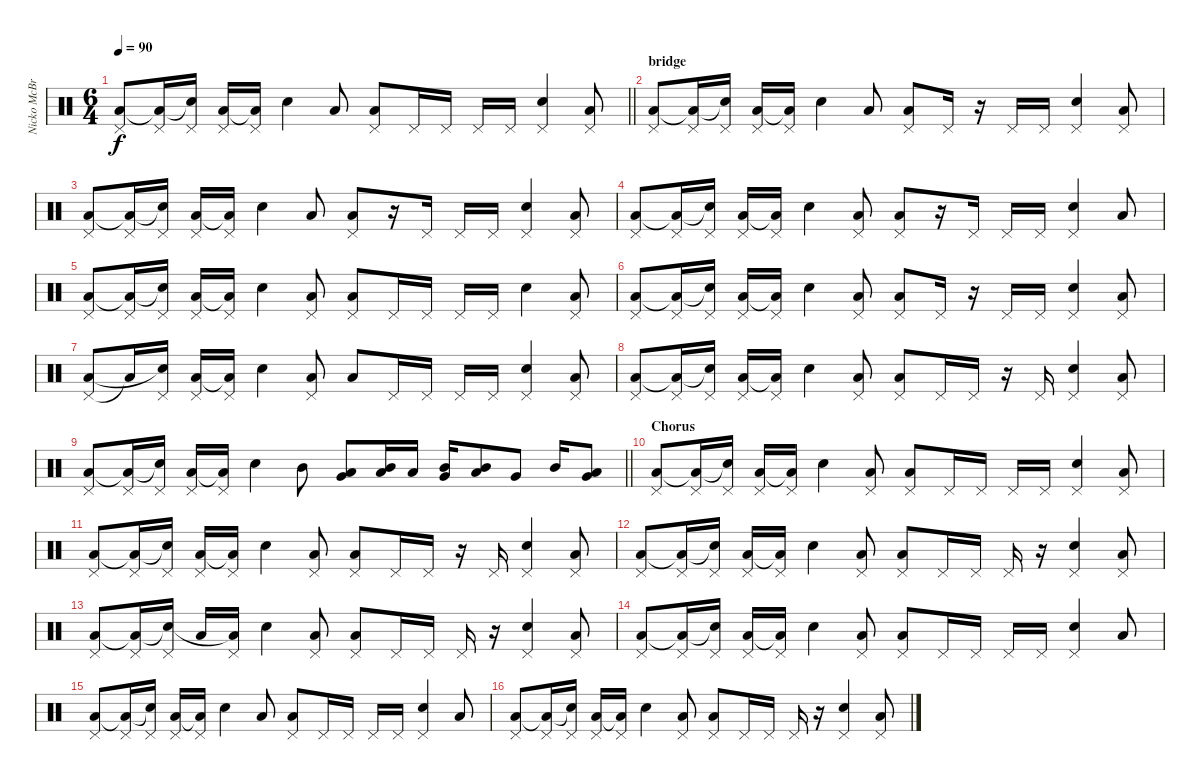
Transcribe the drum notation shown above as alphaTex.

\track ("Nicko McBrain" "Nicko McBr") {instrument percussion}
\staff {score}
\articulation defaults
\ts (6 4)
\tempo 90
\clef neutral
\barLineRight lightlight
\ks c
("Pedal Hi-Hat (hit)" "Low Floor Tom (hit)").8{dy f} ("Pedal Hi-Hat (hit)" "Low Floor Tom (hit)"{t}).16 ("Pedal Hi-Hat (hit)" "Electric Snare (hit)"{t}).16 ("Pedal Hi-Hat (hit)" "Low Floor Tom (hit)").16 ("Pedal Hi-Hat (hit)" "Low Floor Tom (hit)"{t}).16 "Electric Snare (hit)".4 "Low Floor Tom (hit)".8 ("Pedal Hi-Hat (hit)" "Low Floor Tom (hit)").8 "Pedal Hi-Hat (hit)".16 "Pedal Hi-Hat (hit)".16 "Pedal Hi-Hat (hit)".16 "Pedal Hi-Hat (hit)".16 ("Pedal Hi-Hat (hit)" "Electric Snare (hit)").4 ("Pedal Hi-Hat (hit)" "Low Floor Tom (hit)").8 |
\section ("" "bridge")
("Pedal Hi-Hat (hit)" "Low Floor Tom (hit)").8 ("Pedal Hi-Hat (hit)" "Low Floor Tom (hit)"{t}).16 ("Pedal Hi-Hat (hit)" "Electric Snare (hit)"{t}).16 ("Pedal Hi-Hat (hit)" "Low Floor Tom (hit)").16 ("Pedal Hi-Hat (hit)" "Low Floor Tom (hit)"{t}).16 "Electric Snare (hit)".4 "Low Floor Tom (hit)".8 ("Pedal Hi-Hat (hit)" "Low Floor Tom (hit)").8 "Pedal Hi-Hat (hit)".16 r.16 "Pedal Hi-Hat (hit)".16 "Pedal Hi-Hat (hit)".16 ("Pedal Hi-Hat (hit)" "Electric Snare (hit)").4 ("Pedal Hi-Hat (hit)" "Low Floor Tom (hit)").8 |
("Pedal Hi-Hat (hit)" "Low Floor Tom (hit)").8 ("Pedal Hi-Hat (hit)" "Low Floor Tom (hit)"{t}).16 ("Pedal Hi-Hat (hit)" "Electric Snare (hit)"{t}).16 ("Pedal Hi-Hat (hit)" "Low Floor Tom (hit)").16 ("Pedal Hi-Hat (hit)" "Low Floor Tom (hit)"{t}).16 "Electric Snare (hit)".4 "Low Floor Tom (hit)".8 ("Pedal Hi-Hat (hit)" "Low Floor Tom (hit)").8 r.16 "Pedal Hi-Hat (hit)".16 "Pedal Hi-Hat (hit)".16 "Pedal Hi-Hat (hit)".16 ("Pedal Hi-Hat (hit)" "Electric Snare (hit)").4 ("Pedal Hi-Hat (hit)" "Low Floor Tom (hit)").8 |
("Pedal Hi-Hat (hit)" "Low Floor Tom (hit)").8 ("Pedal Hi-Hat (hit)" "Low Floor Tom (hit)"{t}).16 ("Pedal Hi-Hat (hit)" "Electric Snare (hit)"{t}).16 ("Pedal Hi-Hat (hit)" "Low Floor Tom (hit)").16 ("Pedal Hi-Hat (hit)" "Low Floor Tom (hit)"{t}).16 "Electric Snare (hit)".4 ("Pedal Hi-Hat (hit)" "Low Floor Tom (hit)").8 ("Pedal Hi-Hat (hit)" "Low Floor Tom (hit)").8 r.16 "Pedal Hi-Hat (hit)".16 "Pedal Hi-Hat (hit)".16 "Pedal Hi-Hat (hit)".16 ("Pedal Hi-Hat (hit)" "Electric Snare (hit)").4 "Low Floor Tom (hit)".8 |
("Pedal Hi-Hat (hit)" "Low Floor Tom (hit)").8 ("Pedal Hi-Hat (hit)" "Low Floor Tom (hit)"{t}).16 ("Pedal Hi-Hat (hit)" "Electric Snare (hit)"{t}).16 ("Pedal Hi-Hat (hit)" "Low Floor Tom (hit)").16 ("Pedal Hi-Hat (hit)" "Low Floor Tom (hit)"{t}).16 "Electric Snare (hit)".4 ("Pedal Hi-Hat (hit)" "Low Floor Tom (hit)").8 ("Pedal Hi-Hat (hit)" "Low Floor Tom (hit)").8 "Pedal Hi-Hat (hit)".16 "Pedal Hi-Hat (hit)".16 "Pedal Hi-Hat (hit)".16 "Pedal Hi-Hat (hit)".16 "Electric Snare (hit)".4 ("Pedal Hi-Hat (hit)" "Low Floor Tom (hit)").8 |
("Pedal Hi-Hat (hit)" "Low Floor Tom (hit)").8 ("Pedal Hi-Hat (hit)" "Low Floor Tom (hit)"{t}).16 ("Pedal Hi-Hat (hit)" "Electric Snare (hit)"{t}).16 ("Pedal Hi-Hat (hit)" "Low Floor Tom (hit)").16 ("Pedal Hi-Hat (hit)" "Low Floor Tom (hit)"{t}).16 "Electric Snare (hit)".4 ("Pedal Hi-Hat (hit)" "Low Floor Tom (hit)").8 ("Pedal Hi-Hat (hit)" "Low Floor Tom (hit)").8 "Pedal Hi-Hat (hit)".16 r.16 "Pedal Hi-Hat (hit)".16 "Pedal Hi-Hat (hit)".16 ("Pedal Hi-Hat (hit)" "Electric Snare (hit)").4 ("Pedal Hi-Hat (hit)" "Low Floor Tom (hit)").8 |
("Pedal Hi-Hat (hit)" "Low Floor Tom (hit)").8 "Low Floor Tom (hit)"{t}.16 ("Pedal Hi-Hat (hit)" "Electric Snare (hit)"{t}).16 ("Pedal Hi-Hat (hit)" "Low Floor Tom (hit)").16 ("Pedal Hi-Hat (hit)" "Low Floor Tom (hit)"{t}).16 "Electric Snare (hit)".4 ("Pedal Hi-Hat (hit)" "Low Floor Tom (hit)").8 "Low Floor Tom (hit)".8 "Pedal Hi-Hat (hit)".16 "Pedal Hi-Hat (hit)".16 "Pedal Hi-Hat (hit)".16 "Pedal Hi-Hat (hit)".16 ("Pedal Hi-Hat (hit)" "Electric Snare (hit)").4 ("Pedal Hi-Hat (hit)" "Low Floor Tom (hit)").8 |
("Pedal Hi-Hat (hit)" "Low Floor Tom (hit)").8 ("Pedal Hi-Hat (hit)" "Low Floor Tom (hit)"{t}).16 ("Pedal Hi-Hat (hit)" "Electric Snare (hit)"{t}).16 ("Pedal Hi-Hat (hit)" "Low Floor Tom (hit)").16 ("Pedal Hi-Hat (hit)" "Low Floor Tom (hit)"{t}).16 "Electric Snare (hit)".4 ("Pedal Hi-Hat (hit)" "Low Floor Tom (hit)").8 ("Pedal Hi-Hat (hit)" "Low Floor Tom (hit)").8 "Pedal Hi-Hat (hit)".16 "Pedal Hi-Hat (hit)".16 r.16 "Pedal Hi-Hat (hit)".16 ("Pedal Hi-Hat (hit)" "Electric Snare (hit)").4 ("Pedal Hi-Hat (hit)" "Low Floor Tom (hit)").8 |
\barLineRight lightlight
("Pedal Hi-Hat (hit)" "Low Floor Tom (hit)").8 ("Pedal Hi-Hat (hit)" "Low Floor Tom (hit)"{t}).16 ("Pedal Hi-Hat (hit)" "Electric Snare (hit)"{t}).16 ("Pedal Hi-Hat (hit)" "Low Floor Tom (hit)").16 ("Pedal Hi-Hat (hit)" "Low Floor Tom (hit)"{t}).16 "Electric Snare (hit)".4 "Mid Tom (hit)".8 ("Very Low Tom (hit)" "Low Tom (hit)").8 ("Mid Tom (hit)" "Low Tom (hit)").16 "Low Tom (hit)".16 ("Very Low Tom (hit)" "Mid Tom (hit)").16 ("Mid Tom (hit)" "Low Tom (hit)").8 "Very Low Tom (hit)".8 "Mid Tom (hit)".16 ("Very Low Tom (hit)" "Low Tom (hit)").8 |
\section ("" "Chorus")
("Pedal Hi-Hat (hit)" "Low Floor Tom (hit)").8 ("Pedal Hi-Hat (hit)" "Low Floor Tom (hit)"{t}).16 ("Pedal Hi-Hat (hit)" "Electric Snare (hit)"{t}).16 ("Pedal Hi-Hat (hit)" "Low Floor Tom (hit)").16 ("Pedal Hi-Hat (hit)" "Low Floor Tom (hit)"{t}).16 "Electric Snare (hit)".4 ("Pedal Hi-Hat (hit)" "Low Floor Tom (hit)").8 ("Pedal Hi-Hat (hit)" "Low Floor Tom (hit)").8 "Pedal Hi-Hat (hit)".16 "Pedal Hi-Hat (hit)".16 "Pedal Hi-Hat (hit)".16 "Pedal Hi-Hat (hit)".16 ("Pedal Hi-Hat (hit)" "Electric Snare (hit)").4 ("Pedal Hi-Hat (hit)" "Low Floor Tom (hit)").8 |
("Pedal Hi-Hat (hit)" "Low Floor Tom (hit)").8 ("Pedal Hi-Hat (hit)" "Low Floor Tom (hit)"{t}).16 ("Pedal Hi-Hat (hit)" "Electric Snare (hit)"{t}).16 ("Pedal Hi-Hat (hit)" "Low Floor Tom (hit)").16 ("Pedal Hi-Hat (hit)" "Low Floor Tom (hit)"{t}).16 "Electric Snare (hit)".4 ("Pedal Hi-Hat (hit)" "Low Floor Tom (hit)").8 ("Pedal Hi-Hat (hit)" "Low Floor Tom (hit)").8 "Pedal Hi-Hat (hit)".16 "Pedal Hi-Hat (hit)".16 r.16 "Pedal Hi-Hat (hit)".16 ("Pedal Hi-Hat (hit)" "Electric Snare (hit)").4 ("Pedal Hi-Hat (hit)" "Low Floor Tom (hit)").8 |
("Pedal Hi-Hat (hit)" "Low Floor Tom (hit)").8 ("Pedal Hi-Hat (hit)" "Low Floor Tom (hit)"{t}).16 ("Pedal Hi-Hat (hit)" "Electric Snare (hit)"{t}).16 ("Pedal Hi-Hat (hit)" "Low Floor Tom (hit)").16 ("Pedal Hi-Hat (hit)" "Low Floor Tom (hit)"{t}).16 "Electric Snare (hit)".4 ("Pedal Hi-Hat (hit)" "Low Floor Tom (hit)").8 ("Pedal Hi-Hat (hit)" "Low Floor Tom (hit)").8 "Pedal Hi-Hat (hit)".16 "Pedal Hi-Hat (hit)".16 "Pedal Hi-Hat (hit)".16 r.16 ("Pedal Hi-Hat (hit)" "Electric Snare (hit)").4 ("Pedal Hi-Hat (hit)" "Low Floor Tom (hit)").8 |
("Pedal Hi-Hat (hit)" "Low Floor Tom (hit)").8 ("Pedal Hi-Hat (hit)" "Low Floor Tom (hit)"{t}).16 ("Pedal Hi-Hat (hit)" "Electric Snare (hit)"{t}).16 "Low Floor Tom (hit)".16 ("Pedal Hi-Hat (hit)" "Low Floor Tom (hit)"{t}).16 "Electric Snare (hit)".4 ("Pedal Hi-Hat (hit)" "Low Floor Tom (hit)").8 ("Pedal Hi-Hat (hit)" "Low Floor Tom (hit)").8 "Pedal Hi-Hat (hit)".16 "Pedal Hi-Hat (hit)".16 "Pedal Hi-Hat (hit)".16 r.16 ("Pedal Hi-Hat (hit)" "Electric Snare (hit)").4 ("Pedal Hi-Hat (hit)" "Low Floor Tom (hit)").8 |
("Pedal Hi-Hat (hit)" "Low Floor Tom (hit)").8 ("Pedal Hi-Hat (hit)" "Low Floor Tom (hit)"{t}).16 ("Pedal Hi-Hat (hit)" "Electric Snare (hit)"{t}).16 ("Pedal Hi-Hat (hit)" "Low Floor Tom (hit)").16 ("Pedal Hi-Hat (hit)" "Low Floor Tom (hit)"{t}).16 "Electric Snare (hit)".4 ("Pedal Hi-Hat (hit)" "Low Floor Tom (hit)").8 ("Pedal Hi-Hat (hit)" "Low Floor Tom (hit)").8 "Pedal Hi-Hat (hit)".16 "Pedal Hi-Hat (hit)".16 "Pedal Hi-Hat (hit)".16 "Pedal Hi-Hat (hit)".16 ("Pedal Hi-Hat (hit)" "Electric Snare (hit)").4 "Low Floor Tom (hit)".8 |
("Pedal Hi-Hat (hit)" "Low Floor Tom (hit)").8 ("Pedal Hi-Hat (hit)" "Low Floor Tom (hit)"{t}).16 ("Pedal Hi-Hat (hit)" "Electric Snare (hit)"{t}).16 ("Pedal Hi-Hat (hit)" "Low Floor Tom (hit)").16 ("Pedal Hi-Hat (hit)" "Low Floor Tom (hit)"{t}).16 "Electric Snare (hit)".4 "Low Floor Tom (hit)".8 ("Pedal Hi-Hat (hit)" "Low Floor Tom (hit)").8 "Pedal Hi-Hat (hit)".16 "Pedal Hi-Hat (hit)".16 "Pedal Hi-Hat (hit)".16 "Pedal Hi-Hat (hit)".16 ("Pedal Hi-Hat (hit)" "Electric Snare (hit)").4 "Low Floor Tom (hit)".8 |
("Pedal Hi-Hat (hit)" "Low Floor Tom (hit)").8 ("Pedal Hi-Hat (hit)" "Low Floor Tom (hit)"{t}).16 ("Pedal Hi-Hat (hit)" "Electric Snare (hit)"{t}).16 ("Pedal Hi-Hat (hit)" "Low Floor Tom (hit)").16 ("Pedal Hi-Hat (hit)" "Low Floor Tom (hit)"{t}).16 "Electric Snare (hit)".4 ("Pedal Hi-Hat (hit)" "Low Floor Tom (hit)").8 ("Pedal Hi-Hat (hit)" "Low Floor Tom (hit)").8 "Pedal Hi-Hat (hit)".16 "Pedal Hi-Hat (hit)".16 "Pedal Hi-Hat (hit)".16 r.16 ("Pedal Hi-Hat (hit)" "Electric Snare (hit)").4 ("Pedal Hi-Hat (hit)" "Low Floor Tom (hit)").8
